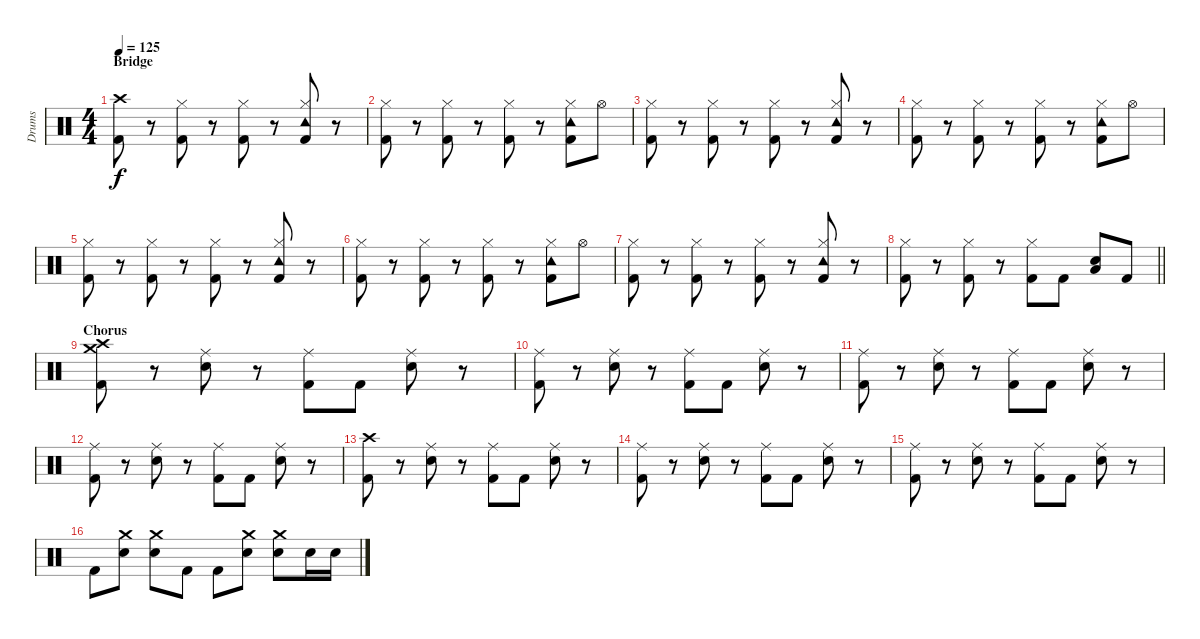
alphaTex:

\track ("Drums" "Drums") {instrument percussion}
\staff {score}
\articulation defaults
\ts (4 4)
\section ("" "Bridge")
\tempo 125
\clef neutral
\ks c
("Crash high (hit)" "Kick (hit) 2").8{dy f} r.8 ("Hi-Hat (closed)" "Kick (hit) 2").8 r.8 ("Hi-Hat (closed)" "Kick (hit) 2").8 r.8 ("Tambourine (hit)" "Hi-Hat (closed)" "Kick (hit) 2").8 r.8 |
("Hi-Hat (closed)" "Kick (hit) 2").8 r.8 ("Hi-Hat (closed)" "Kick (hit) 2").8 r.8 ("Hi-Hat (closed)" "Kick (hit) 2").8 r.8 ("Tambourine (hit)" "Hi-Hat (closed)" "Kick (hit) 2").8 "Hi-Hat (open)".8 |
("Hi-Hat (closed)" "Kick (hit) 2").8 r.8 ("Hi-Hat (closed)" "Kick (hit) 2").8 r.8 ("Hi-Hat (closed)" "Kick (hit) 2").8 r.8 ("Tambourine (hit)" "Hi-Hat (closed)" "Kick (hit) 2").8 r.8 |
("Hi-Hat (closed)" "Kick (hit) 2").8 r.8 ("Hi-Hat (closed)" "Kick (hit) 2").8 r.8 ("Hi-Hat (closed)" "Kick (hit) 2").8 r.8 ("Tambourine (hit)" "Hi-Hat (closed)" "Kick (hit) 2").8 "Hi-Hat (open)".8 |
("Hi-Hat (closed)" "Kick (hit) 2").8 r.8 ("Hi-Hat (closed)" "Kick (hit) 2").8 r.8 ("Hi-Hat (closed)" "Kick (hit) 2").8 r.8 ("Tambourine (hit)" "Hi-Hat (closed)" "Kick (hit) 2").8 r.8 |
("Hi-Hat (closed)" "Kick (hit) 2").8 r.8 ("Hi-Hat (closed)" "Kick (hit) 2").8 r.8 ("Hi-Hat (closed)" "Kick (hit) 2").8 r.8 ("Tambourine (hit)" "Hi-Hat (closed)" "Kick (hit) 2").8 "Hi-Hat (open)".8 |
("Hi-Hat (closed)" "Kick (hit) 2").8 r.8 ("Hi-Hat (closed)" "Kick (hit) 2").8 r.8 ("Hi-Hat (closed)" "Kick (hit) 2").8 r.8 ("Tambourine (hit)" "Hi-Hat (closed)" "Kick (hit) 2").8 r.8 |
\barLineRight lightlight
("Hi-Hat (closed)" "Kick (hit) 2").8 r.8 ("Hi-Hat (closed)" "Kick (hit) 2").8 r.8 ("Hi-Hat (closed)" "Kick (hit) 2").8 "Kick (hit) 2".8 ("Snare (hit) 2" "Low Tom (hit)").8 "Kick (hit) 2".8 |
\section ("" "Chorus")
("Crash medium (hit)" "Crash high (hit)" "Kick (hit) 2").8 r.8 ("Ride (middle)" "Snare (hit) 2").8 r.8 ("Ride (middle)" "Kick (hit) 2").8 "Kick (hit) 2".8 ("Ride (middle)" "Snare (hit) 2").8 r.8 |
("Ride (middle)" "Kick (hit) 2").8 r.8 ("Ride (middle)" "Snare (hit) 2").8 r.8 ("Ride (middle)" "Kick (hit) 2").8 "Kick (hit) 2".8 ("Ride (middle)" "Snare (hit) 2").8 r.8 |
("Ride (middle)" "Kick (hit) 2").8 r.8 ("Ride (middle)" "Snare (hit) 2").8 r.8 ("Ride (middle)" "Kick (hit) 2").8 "Kick (hit) 2".8 ("Ride (middle)" "Snare (hit) 2").8 r.8 |
("Ride (middle)" "Kick (hit) 2").8 r.8 ("Ride (middle)" "Snare (hit) 2").8 r.8 ("Ride (middle)" "Kick (hit) 2").8 "Kick (hit) 2".8 ("Ride (middle)" "Snare (hit) 2").8 r.8 |
("Crash high (hit)" "Kick (hit) 2").8 r.8 ("Ride (middle)" "Snare (hit) 2").8 r.8 ("Ride (middle)" "Kick (hit) 2").8 "Kick (hit) 2".8 ("Ride (middle)" "Snare (hit) 2").8 r.8 |
("Ride (middle)" "Kick (hit) 2").8 r.8 ("Ride (middle)" "Snare (hit) 2").8 r.8 ("Ride (middle)" "Kick (hit) 2").8 "Kick (hit) 2".8 ("Ride (middle)" "Snare (hit) 2").8 r.8 |
("Ride (middle)" "Kick (hit) 2").8 r.8 ("Ride (middle)" "Snare (hit) 2").8 r.8 ("Ride (middle)" "Kick (hit) 2").8 "Kick (hit) 2".8 ("Ride (middle)" "Snare (hit) 2").8 r.8 |
"Kick (hit) 2".8 ("Crash medium (hit)" "Snare (hit) 2").8 ("Crash medium (hit)" "Snare (hit) 2").8 "Kick (hit) 2".8 "Kick (hit) 2".8 ("Crash medium (hit)" "Snare (hit) 2").8 ("Crash medium (hit)" "Snare (hit) 2").8 "Snare (hit) 2".16 "Snare (hit) 2".16
